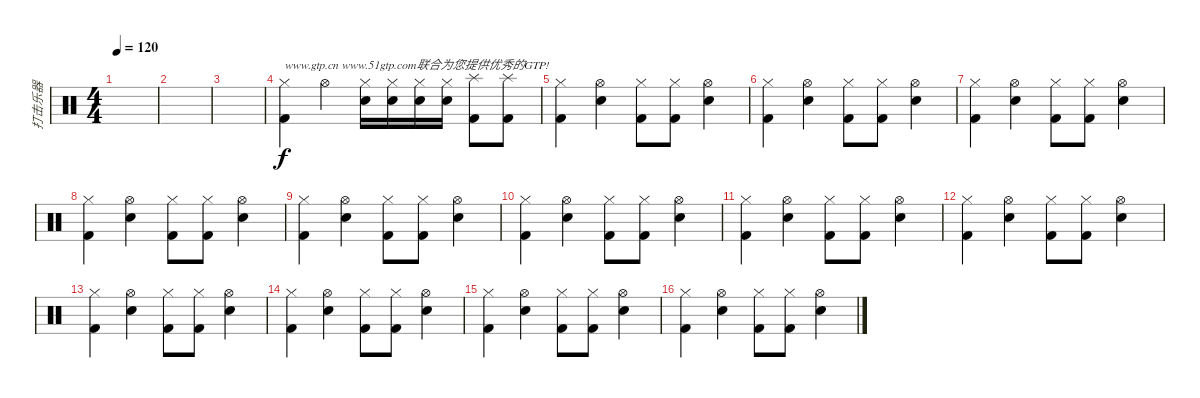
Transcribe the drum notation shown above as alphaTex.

\track ("打击乐器" "打击乐器") {instrument percussion}
\staff {score}
\articulation defaults
\ts (4 4)
\tempo 120
\clef neutral
\ks c
|
|
|
("Hi-Hat (closed)" "Kick (hit) 2").4{txt "www.gtp.cn www.51gtp.com联合为您提供优秀的GTP!"} "Hi-Hat (open)".4 ("Hi-Hat (closed)" "Electric Snare (hit)").16 ("Hi-Hat (closed)" "Electric Snare (hit)").16 ("Hi-Hat (closed)" "Electric Snare (hit)").16 ("Hi-Hat (closed)" "Electric Snare (hit)").16 ("Splash (hit)" "Kick (hit) 2").8 ("Splash (hit)" "Kick (hit) 2").8 |
("Hi-Hat (closed)" "Kick (hit) 2").4 ("Hi-Hat (open)" "Electric Snare (hit)").4 ("Hi-Hat (closed)" "Kick (hit) 2").8 ("Hi-Hat (closed)" "Kick (hit) 2").8 ("Hi-Hat (open)" "Electric Snare (hit)").4 |
("Hi-Hat (closed)" "Kick (hit) 2").4 ("Hi-Hat (open)" "Electric Snare (hit)").4 ("Hi-Hat (closed)" "Kick (hit) 2").8 ("Hi-Hat (closed)" "Kick (hit) 2").8 ("Hi-Hat (open)" "Electric Snare (hit)").4 |
("Hi-Hat (closed)" "Kick (hit) 2").4 ("Hi-Hat (open)" "Electric Snare (hit)").4 ("Hi-Hat (closed)" "Kick (hit) 2").8 ("Hi-Hat (closed)" "Kick (hit) 2").8 ("Hi-Hat (open)" "Electric Snare (hit)").4 |
("Hi-Hat (closed)" "Kick (hit) 2").4 ("Hi-Hat (open)" "Electric Snare (hit)").4 ("Hi-Hat (closed)" "Kick (hit) 2").8 ("Hi-Hat (closed)" "Kick (hit) 2").8 ("Hi-Hat (open)" "Electric Snare (hit)").4 |
("Hi-Hat (closed)" "Kick (hit) 2").4 ("Hi-Hat (open)" "Electric Snare (hit)").4 ("Hi-Hat (closed)" "Kick (hit) 2").8 ("Hi-Hat (closed)" "Kick (hit) 2").8 ("Hi-Hat (open)" "Electric Snare (hit)").4 |
("Hi-Hat (closed)" "Kick (hit) 2").4 ("Hi-Hat (open)" "Electric Snare (hit)").4 ("Hi-Hat (closed)" "Kick (hit) 2").8 ("Hi-Hat (closed)" "Kick (hit) 2").8 ("Hi-Hat (open)" "Electric Snare (hit)").4 |
("Hi-Hat (closed)" "Kick (hit) 2").4 ("Hi-Hat (open)" "Electric Snare (hit)").4 ("Hi-Hat (closed)" "Kick (hit) 2").8 ("Hi-Hat (closed)" "Kick (hit) 2").8 ("Hi-Hat (open)" "Electric Snare (hit)").4 |
("Hi-Hat (closed)" "Kick (hit) 2").4 ("Hi-Hat (open)" "Electric Snare (hit)").4 ("Hi-Hat (closed)" "Kick (hit) 2").8 ("Hi-Hat (closed)" "Kick (hit) 2").8 ("Hi-Hat (open)" "Electric Snare (hit)").4 |
("Hi-Hat (closed)" "Kick (hit) 2").4 ("Hi-Hat (open)" "Electric Snare (hit)").4 ("Hi-Hat (closed)" "Kick (hit) 2").8 ("Hi-Hat (closed)" "Kick (hit) 2").8 ("Hi-Hat (open)" "Electric Snare (hit)").4 |
("Hi-Hat (closed)" "Kick (hit) 2").4 ("Hi-Hat (open)" "Electric Snare (hit)").4 ("Hi-Hat (closed)" "Kick (hit) 2").8 ("Hi-Hat (closed)" "Kick (hit) 2").8 ("Hi-Hat (open)" "Electric Snare (hit)").4 |
("Hi-Hat (closed)" "Kick (hit) 2").4 ("Hi-Hat (open)" "Electric Snare (hit)").4 ("Hi-Hat (closed)" "Kick (hit) 2").8 ("Hi-Hat (closed)" "Kick (hit) 2").8 ("Hi-Hat (open)" "Electric Snare (hit)").4 |
("Hi-Hat (closed)" "Kick (hit) 2").4 ("Hi-Hat (open)" "Electric Snare (hit)").4 ("Hi-Hat (closed)" "Kick (hit) 2").8 ("Hi-Hat (closed)" "Kick (hit) 2").8 ("Hi-Hat (open)" "Electric Snare (hit)").4
